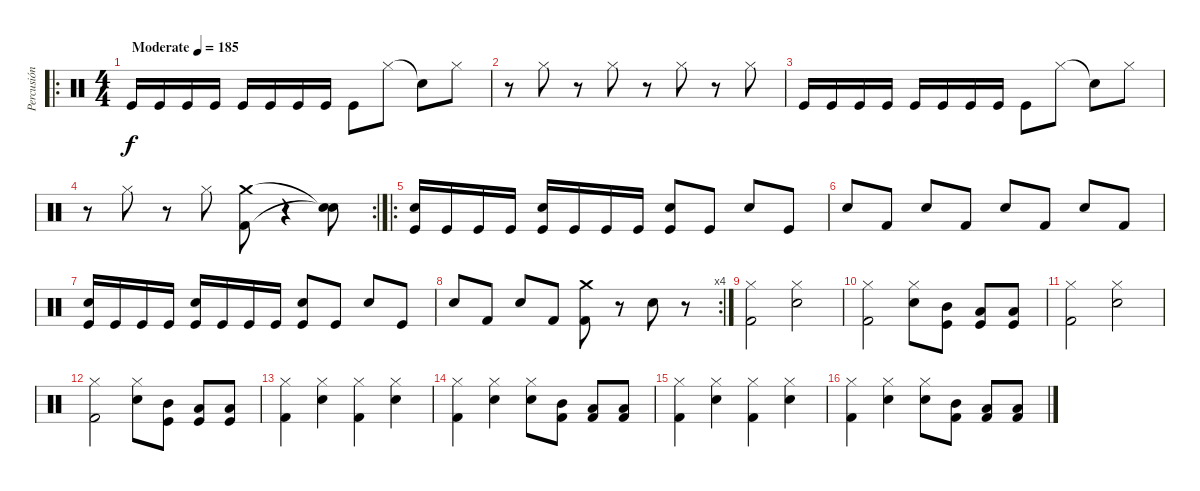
\track ("Percusión" "Percusión") {instrument percussion}
\staff {score}
\articulation defaults
\ro
\ts (4 4)
\tempo (185 "Moderate")
\clef neutral
\ks c "Kick (hit)".16{dy f} "Kick (hit)".16 "Kick (hit)".16 "Kick (hit)".16 "Kick (hit)".16 "Kick (hit)".16 "Kick (hit)".16 "Kick (hit)".16 "Kick (hit)".8 "Hi-Hat (closed)".8 "Snare (hit)"{t}.8 "Hi-Hat (closed)".8
|
r.8 "Hi-Hat (closed)".8 r.8 "Hi-Hat (closed)".8 r.8 "Hi-Hat (closed)".8 r.8 "Hi-Hat (closed)".8 |
"Kick (hit)".16 "Kick (hit)".16 "Kick (hit)".16 "Kick (hit)".16 "Kick (hit)".16 "Kick (hit)".16 "Kick (hit)".16 "Kick (hit)".16 "Kick (hit)".8 "Hi-Hat (closed)".8 "Snare (hit)"{t}.8 "Hi-Hat (closed)".8 |
\rc 2
r.8 "Hi-Hat (closed)".8 r.8 "Hi-Hat (closed)".8 ("Crash medium (hit)" "Kick (hit) 2").8 r.4 ("Snare (hit)"{t} "Snare (hit)"{t}).8 |
\ro
("Snare (hit) 2" "Kick (hit)").16 "Kick (hit)".16 "Kick (hit)".16 "Kick (hit)".16 ("Snare (hit) 2" "Kick (hit)").16 "Kick (hit)".16 "Kick (hit)".16 "Kick (hit)".16 ("Snare (hit) 2" "Kick (hit)").8 "Kick (hit)".8 "Snare (hit) 2".8 "Kick (hit)".8 |
"Snare (hit) 2".8 "Kick (hit) 2".8 "Snare (hit) 2".8 "Kick (hit) 2".8 "Snare (hit) 2".8 "Kick (hit) 2".8 "Snare (hit) 2".8 "Kick (hit) 2".8 |
("Snare (hit) 2" "Kick (hit)").16 "Kick (hit)".16 "Kick (hit)".16 "Kick (hit)".16 ("Snare (hit) 2" "Kick (hit)").16 "Kick (hit)".16 "Kick (hit)".16 "Kick (hit)".16 ("Snare (hit) 2" "Kick (hit)").8 "Kick (hit)".8 "Snare (hit) 2".8 "Kick (hit)".8 |
\rc 4 "Snare (hit) 2".8 "Kick (hit) 2".8 "Snare (hit) 2".8 "Kick (hit) 2".8
("Crash medium (hit)" "Kick (hit) 2").8 r.8 "Snare (hit) 2".8 r.8 |
("Hi-Hat (closed)" "Kick (hit) 2").2 ("Hi-Hat (closed)" "Snare (hit) 2").2 |
("Hi-Hat (closed)" "Kick (hit) 2").2 ("Hi-Hat (closed)" "Snare (hit) 2").8 ("Kick (hit)" "Mid Tom (hit)").8 ("Kick (hit)" "Low Tom (hit)").8 ("Kick (hit)" "Low Tom (hit)").8 |
("Hi-Hat (closed)" "Kick (hit) 2").2 ("Hi-Hat (closed)" "Snare (hit) 2").2 |
("Hi-Hat (closed)" "Kick (hit) 2").2 ("Hi-Hat (closed)" "Snare (hit) 2").8 ("Kick (hit)" "Mid Tom (hit)").8 ("Kick (hit)" "Low Tom (hit)").8 ("Kick (hit)" "Low Tom (hit)").8 |
("Hi-Hat (closed)" "Kick (hit) 2").4 ("Hi-Hat (closed)" "Snare (hit) 2").4 ("Hi-Hat (closed)" "Kick (hit) 2").4 ("Hi-Hat (closed)" "Snare (hit) 2").4 |
("Hi-Hat (closed)" "Kick (hit) 2").4 ("Hi-Hat (closed)" "Snare (hit) 2").4 ("Hi-Hat (closed)" "Snare (hit) 2").8 ("Mid Tom (hit)" "Kick (hit) 2").8 ("Low Tom (hit)" "Kick (hit) 2").8 ("Low Tom (hit)" "Kick (hit) 2").8 |
("Hi-Hat (closed)" "Kick (hit) 2").4 ("Hi-Hat (closed)" "Snare (hit) 2").4 ("Hi-Hat (closed)" "Kick (hit) 2").4 ("Hi-Hat (closed)" "Snare (hit) 2").4 |
("Hi-Hat (closed)" "Kick (hit) 2").4 ("Hi-Hat (closed)" "Snare (hit) 2").4 ("Hi-Hat (closed)" "Snare (hit) 2").8 ("Mid Tom (hit)" "Kick (hit) 2").8 ("Low Tom (hit)" "Kick (hit) 2").8 ("Low Tom (hit)" "Kick (hit) 2").8
